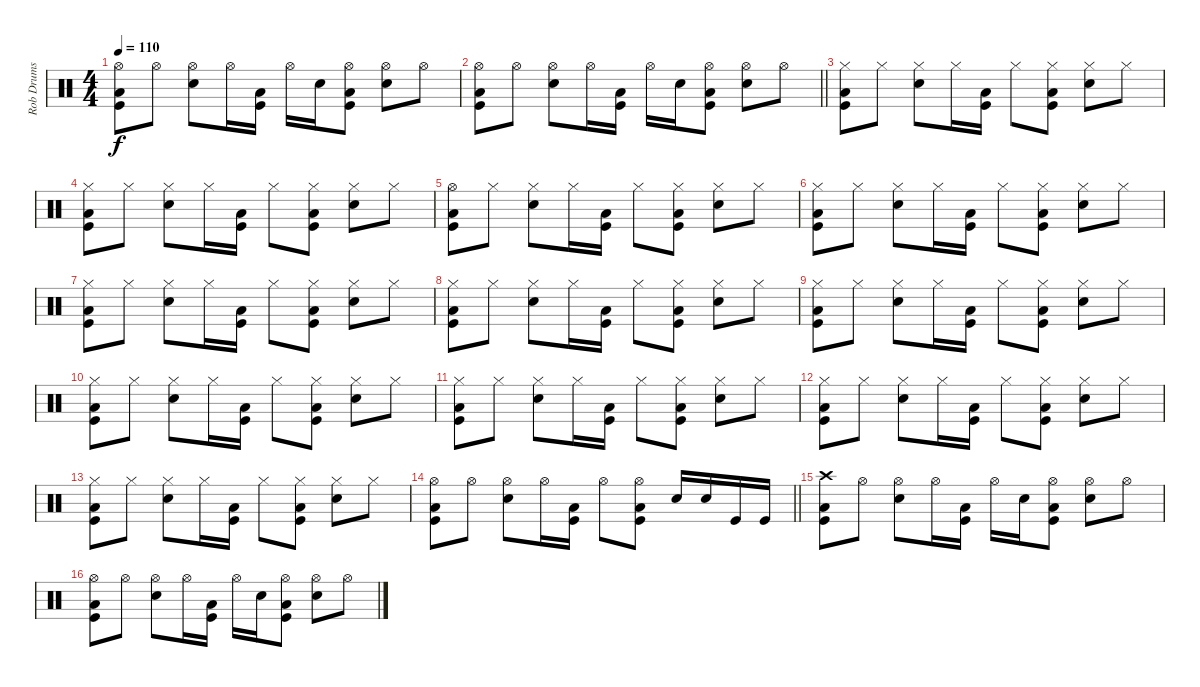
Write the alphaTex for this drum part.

\track ("Rob Drums" "Rob Drums") {instrument percussion}
\staff {score}
\articulation defaults
\ts (4 4)
\tempo 110
\clef neutral
\ks c
("Hi-Hat (open)" "Kick (hit)" "Low Tom (hit)").8{dy f} "Hi-Hat (open)".8 ("Hi-Hat (open)" "Snare (hit) 2").8 "Hi-Hat (open)".16 ("Kick (hit)" "Low Tom (hit)").16 "Hi-Hat (open)".16 "Snare (hit) 2".16 ("Hi-Hat (open)" "Kick (hit)" "Low Tom (hit)").8 ("Hi-Hat (open)" "Snare (hit) 2").8 "Hi-Hat (open)".8 |
\barLineRight lightlight
("Hi-Hat (open)" "Kick (hit)" "Low Tom (hit)").8 "Hi-Hat (open)".8 ("Hi-Hat (open)" "Snare (hit) 2").8 "Hi-Hat (open)".16 ("Kick (hit)" "Low Tom (hit)").16 "Hi-Hat (open)".16 "Snare (hit) 2".16 ("Hi-Hat (open)" "Kick (hit)" "Low Tom (hit)").8 ("Hi-Hat (open)" "Snare (hit) 2").8 "Hi-Hat (open)".8 |
("Hi-Hat (closed)" "Kick (hit)" "Low Tom (hit)").8 "Hi-Hat (closed)".8 ("Hi-Hat (closed)" "Snare (hit) 2").8 "Hi-Hat (closed)".16 ("Kick (hit)" "Low Tom (hit)").16 "Hi-Hat (closed)".8 ("Hi-Hat (closed)" "Kick (hit)" "Low Tom (hit)").8 ("Hi-Hat (closed)" "Snare (hit) 2").8 "Hi-Hat (closed)".8 |
("Hi-Hat (closed)" "Kick (hit)" "Low Tom (hit)").8 "Hi-Hat (closed)".8 ("Hi-Hat (closed)" "Snare (hit) 2").8 "Hi-Hat (closed)".16 ("Kick (hit)" "Low Tom (hit)").16 "Hi-Hat (closed)".8 ("Hi-Hat (closed)" "Kick (hit)" "Low Tom (hit)").8 ("Hi-Hat (closed)" "Snare (hit) 2").8 "Hi-Hat (closed)".8 |
("Hi-Hat (open)" "Kick (hit)" "Low Tom (hit)").8 "Hi-Hat (closed)".8 ("Hi-Hat (closed)" "Snare (hit) 2").8 "Hi-Hat (closed)".16 ("Kick (hit)" "Low Tom (hit)").16 "Hi-Hat (closed)".8 ("Hi-Hat (closed)" "Kick (hit)" "Low Tom (hit)").8 ("Hi-Hat (closed)" "Snare (hit) 2").8 "Hi-Hat (closed)".8 |
("Hi-Hat (closed)" "Kick (hit)" "Low Tom (hit)").8 "Hi-Hat (closed)".8 ("Hi-Hat (closed)" "Snare (hit) 2").8 "Hi-Hat (closed)".16 ("Kick (hit)" "Low Tom (hit)").16 "Hi-Hat (closed)".8 ("Hi-Hat (closed)" "Kick (hit)" "Low Tom (hit)").8 ("Hi-Hat (closed)" "Snare (hit) 2").8 "Hi-Hat (closed)".8 |
("Hi-Hat (closed)" "Kick (hit)" "Low Tom (hit)").8 "Hi-Hat (closed)".8 ("Hi-Hat (closed)" "Snare (hit) 2").8 "Hi-Hat (closed)".16 ("Kick (hit)" "Low Tom (hit)").16 "Hi-Hat (closed)".8 ("Hi-Hat (closed)" "Kick (hit)" "Low Tom (hit)").8 ("Hi-Hat (closed)" "Snare (hit) 2").8 "Hi-Hat (closed)".8 |
("Hi-Hat (closed)" "Kick (hit)" "Low Tom (hit)").8 "Hi-Hat (closed)".8 ("Hi-Hat (closed)" "Snare (hit) 2").8 "Hi-Hat (closed)".16 ("Kick (hit)" "Low Tom (hit)").16 "Hi-Hat (closed)".8 ("Hi-Hat (closed)" "Kick (hit)" "Low Tom (hit)").8 ("Hi-Hat (closed)" "Snare (hit) 2").8 "Hi-Hat (closed)".8 |
("Hi-Hat (closed)" "Kick (hit)" "Low Tom (hit)").8 "Hi-Hat (closed)".8 ("Hi-Hat (closed)" "Snare (hit) 2").8 "Hi-Hat (closed)".16 ("Kick (hit)" "Low Tom (hit)").16 "Hi-Hat (closed)".8 ("Hi-Hat (closed)" "Kick (hit)" "Low Tom (hit)").8 ("Hi-Hat (closed)" "Snare (hit) 2").8 "Hi-Hat (closed)".8 |
("Hi-Hat (closed)" "Kick (hit)" "Low Tom (hit)").8 "Hi-Hat (closed)".8 ("Hi-Hat (closed)" "Snare (hit) 2").8 "Hi-Hat (closed)".16 ("Kick (hit)" "Low Tom (hit)").16 "Hi-Hat (closed)".8 ("Hi-Hat (closed)" "Kick (hit)" "Low Tom (hit)").8 ("Hi-Hat (closed)" "Snare (hit) 2").8 "Hi-Hat (closed)".8 |
("Hi-Hat (closed)" "Kick (hit)" "Low Tom (hit)").8 "Hi-Hat (closed)".8 ("Hi-Hat (closed)" "Snare (hit) 2").8 "Hi-Hat (closed)".16 ("Kick (hit)" "Low Tom (hit)").16 "Hi-Hat (closed)".8 ("Hi-Hat (closed)" "Kick (hit)" "Low Tom (hit)").8 ("Hi-Hat (closed)" "Snare (hit) 2").8 "Hi-Hat (closed)".8 |
("Hi-Hat (closed)" "Kick (hit)" "Low Tom (hit)").8 "Hi-Hat (closed)".8 ("Hi-Hat (closed)" "Snare (hit) 2").8 "Hi-Hat (closed)".16 ("Kick (hit)" "Low Tom (hit)").16 "Hi-Hat (closed)".8 ("Hi-Hat (closed)" "Kick (hit)" "Low Tom (hit)").8 ("Hi-Hat (closed)" "Snare (hit) 2").8 "Hi-Hat (closed)".8 |
("Hi-Hat (closed)" "Kick (hit)" "Low Tom (hit)").8 "Hi-Hat (closed)".8 ("Hi-Hat (closed)" "Snare (hit) 2").8 "Hi-Hat (closed)".16 ("Kick (hit)" "Low Tom (hit)").16 "Hi-Hat (closed)".8 ("Hi-Hat (closed)" "Kick (hit)" "Low Tom (hit)").8 ("Hi-Hat (closed)" "Snare (hit) 2").8 "Hi-Hat (closed)".8 |
\barLineRight lightlight
("Hi-Hat (open)" "Kick (hit)" "Low Tom (hit)").8 "Hi-Hat (open)".8 ("Hi-Hat (open)" "Snare (hit) 2").8 "Hi-Hat (open)".16 ("Kick (hit)" "Low Tom (hit)").16 "Hi-Hat (open)".8 ("Hi-Hat (open)" "Kick (hit)" "Low Tom (hit)").8 "Snare (hit) 2".16 "Snare (hit) 2".16 "Kick (hit)".16 "Kick (hit)".16 |
("Crash high (hit)" "Kick (hit)" "Low Tom (hit)").8 "Hi-Hat (open)".8 ("Hi-Hat (open)" "Snare (hit) 2").8 "Hi-Hat (open)".16 ("Kick (hit)" "Low Tom (hit)").16 "Hi-Hat (open)".16 "Snare (hit) 2".16 ("Hi-Hat (open)" "Kick (hit)" "Low Tom (hit)").8 ("Hi-Hat (open)" "Snare (hit) 2").8 "Hi-Hat (open)".8 |
("Hi-Hat (open)" "Kick (hit)" "Low Tom (hit)").8 "Hi-Hat (open)".8 ("Hi-Hat (open)" "Snare (hit) 2").8 "Hi-Hat (open)".16 ("Kick (hit)" "Low Tom (hit)").16 "Hi-Hat (open)".16 "Snare (hit) 2".16 ("Hi-Hat (open)" "Kick (hit)" "Low Tom (hit)").8 ("Hi-Hat (open)" "Snare (hit) 2").8 "Hi-Hat (open)".8
